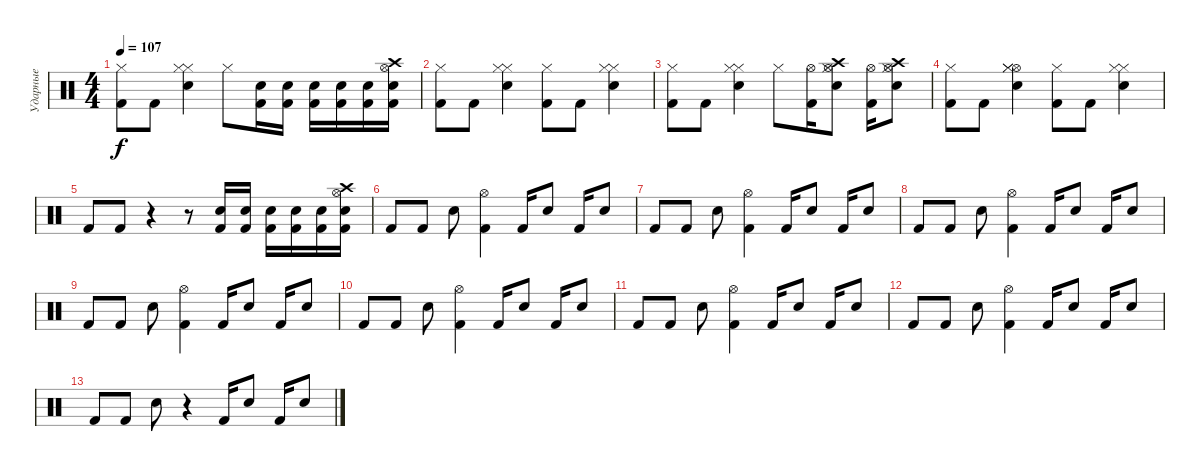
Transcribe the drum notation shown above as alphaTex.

\track ("Ударные" "Ударные") {instrument percussion}
\staff {score}
\articulation defaults
\ts (4 4)
\tempo 107
\clef neutral
\ks c
("Hi-Hat (closed)" "Kick (hit) 2").8{dy f} "Kick (hit) 2".8 ("Hi-Hat (closed)" "Hi-Hat (closed)" "Electric Snare (hit)").4 "Hi-Hat (closed)".8 ("Kick (hit) 2" "Electric Snare (hit)").16 ("Kick (hit) 2" "Electric Snare (hit)").16 ("Kick (hit) 2" "Electric Snare (hit)").16 ("Kick (hit) 2" "Electric Snare (hit)").16 ("Kick (hit) 2" "Electric Snare (hit)").16 ("Crash high (hit)" "Hi-Hat (open)" "Kick (hit) 2" "Electric Snare (hit)").16 |
("Hi-Hat (closed)" "Kick (hit) 2").8 "Kick (hit) 2".8 ("Hi-Hat (closed)" "Hi-Hat (closed)" "Electric Snare (hit)").4 ("Hi-Hat (closed)" "Kick (hit) 2").8 "Kick (hit) 2".8 ("Hi-Hat (closed)" "Hi-Hat (closed)" "Electric Snare (hit)").4 |
("Hi-Hat (closed)" "Kick (hit) 2").8 "Kick (hit) 2".8 ("Hi-Hat (closed)" "Hi-Hat (closed)" "Electric Snare (hit)").4 "Hi-Hat (closed)".8 ("Hi-Hat (open)" "Kick (hit) 2").16 ("Hi-Hat (closed)" "Crash high (hit)" "Hi-Hat (open)" "Electric Snare (hit)").8 ("Hi-Hat (open)" "Kick (hit) 2").16 ("Hi-Hat (closed)" "Crash high (hit)" "Hi-Hat (open)" "Electric Snare (hit)").8 |
("Hi-Hat (closed)" "Kick (hit) 2").8 "Kick (hit) 2".8 ("Hi-Hat (open)" "Hi-Hat (closed)" "Hi-Hat (closed)" "Electric Snare (hit)").4 ("Hi-Hat (closed)" "Kick (hit) 2").8 "Kick (hit) 2".8 ("Hi-Hat (closed)" "Hi-Hat (closed)" "Electric Snare (hit)").4 |
"Kick (hit) 2".8 "Kick (hit) 2".8 r.4 r.8 ("Kick (hit) 2" "Electric Snare (hit)").16 ("Kick (hit) 2" "Electric Snare (hit)").16 ("Kick (hit) 2" "Electric Snare (hit)").16 ("Kick (hit) 2" "Electric Snare (hit)").16 ("Kick (hit) 2" "Electric Snare (hit)").16 ("Crash high (hit)" "Hi-Hat (open)" "Kick (hit) 2" "Electric Snare (hit)").16 |
"Kick (hit) 2".8 "Kick (hit) 2".8 "Electric Snare (hit)".8 ("Hi-Hat (open)" "Kick (hit) 2").4 "Kick (hit) 2".16 "Electric Snare (hit)".8 "Kick (hit) 2".16 "Electric Snare (hit)".8 |
"Kick (hit) 2".8 "Kick (hit) 2".8 "Electric Snare (hit)".8 ("Hi-Hat (open)" "Kick (hit) 2").4 "Kick (hit) 2".16 "Electric Snare (hit)".8 "Kick (hit) 2".16 "Electric Snare (hit)".8 |
"Kick (hit) 2".8 "Kick (hit) 2".8 "Electric Snare (hit)".8 ("Hi-Hat (open)" "Kick (hit) 2").4 "Kick (hit) 2".16 "Electric Snare (hit)".8 "Kick (hit) 2".16 "Electric Snare (hit)".8 |
"Kick (hit) 2".8 "Kick (hit) 2".8 "Electric Snare (hit)".8 ("Hi-Hat (open)" "Kick (hit) 2").4 "Kick (hit) 2".16 "Electric Snare (hit)".8 "Kick (hit) 2".16 "Electric Snare (hit)".8 |
"Kick (hit) 2".8 "Kick (hit) 2".8 "Electric Snare (hit)".8 ("Hi-Hat (open)" "Kick (hit) 2").4 "Kick (hit) 2".16 "Electric Snare (hit)".8 "Kick (hit) 2".16 "Electric Snare (hit)".8 |
"Kick (hit) 2".8 "Kick (hit) 2".8 "Electric Snare (hit)".8 ("Hi-Hat (open)" "Kick (hit) 2").4 "Kick (hit) 2".16 "Electric Snare (hit)".8 "Kick (hit) 2".16 "Electric Snare (hit)".8 |
"Kick (hit) 2".8 "Kick (hit) 2".8 "Electric Snare (hit)".8 ("Hi-Hat (open)" "Kick (hit) 2").4 "Kick (hit) 2".16 "Electric Snare (hit)".8 "Kick (hit) 2".16 "Electric Snare (hit)".8 |
"Kick (hit) 2".8 "Kick (hit) 2".8 "Electric Snare (hit)".8 r.4 "Kick (hit) 2".16 "Electric Snare (hit)".8 "Kick (hit) 2".16 "Electric Snare (hit)".8
